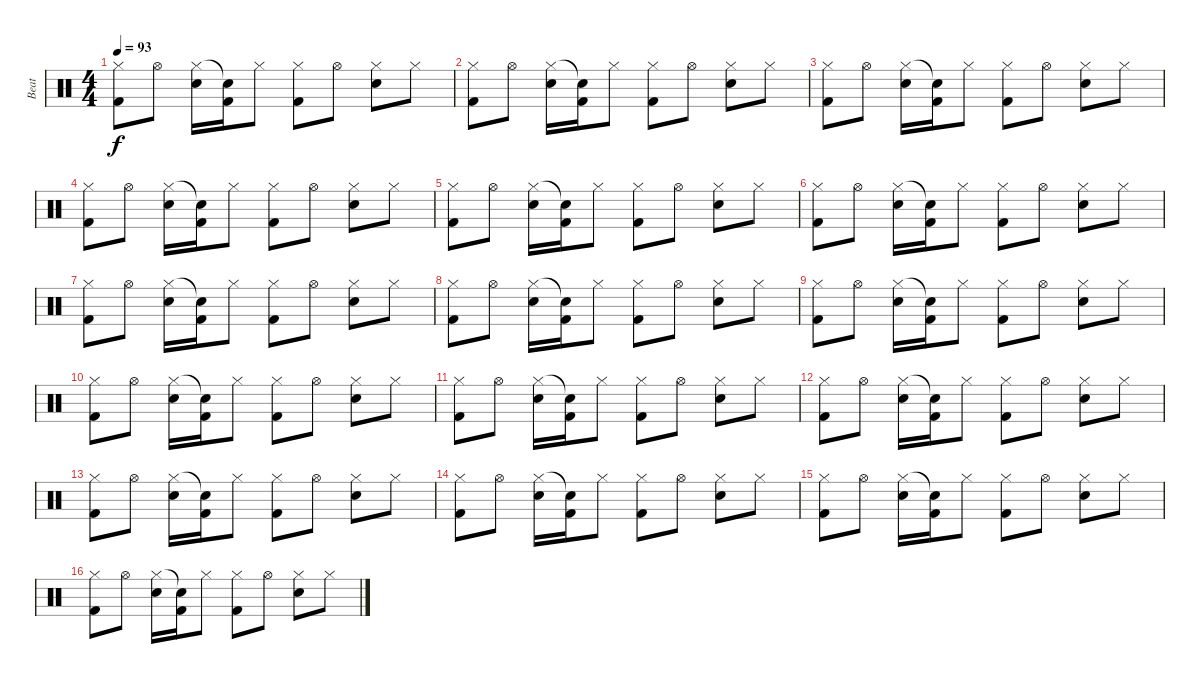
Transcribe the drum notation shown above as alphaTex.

\track ("Beat" "Beat") {instrument percussion}
\staff {score}
\articulation defaults
\ts (4 4)
\tempo 93
\clef neutral
\ks c
("Hi-Hat (closed)" "Kick (hit) 2").8{dy f} "Hi-Hat (open)".8 ("Hi-Hat (closed)" "Snare (hit) 2").16 ("Snare (hit)"{t} "Kick (hit) 2").16 "Hi-Hat (closed)".8 ("Hi-Hat (closed)" "Kick (hit) 2").8 "Hi-Hat (open)".8 ("Hi-Hat (closed)" "Snare (hit) 2").8 "Hi-Hat (closed)".8 |
("Hi-Hat (closed)" "Kick (hit) 2").8 "Hi-Hat (open)".8 ("Hi-Hat (closed)" "Snare (hit) 2").16 ("Snare (hit)"{t} "Kick (hit) 2").16 "Hi-Hat (closed)".8 ("Hi-Hat (closed)" "Kick (hit) 2").8 "Hi-Hat (open)".8 ("Hi-Hat (closed)" "Snare (hit) 2").8 "Hi-Hat (closed)".8 |
("Hi-Hat (closed)" "Kick (hit) 2").8 "Hi-Hat (open)".8 ("Hi-Hat (closed)" "Snare (hit) 2").16 ("Snare (hit)"{t} "Kick (hit) 2").16 "Hi-Hat (closed)".8 ("Hi-Hat (closed)" "Kick (hit) 2").8 "Hi-Hat (open)".8 ("Hi-Hat (closed)" "Snare (hit) 2").8 "Hi-Hat (closed)".8 |
("Hi-Hat (closed)" "Kick (hit) 2").8 "Hi-Hat (open)".8 ("Hi-Hat (closed)" "Snare (hit) 2").16 ("Snare (hit)"{t} "Kick (hit) 2").16 "Hi-Hat (closed)".8 ("Hi-Hat (closed)" "Kick (hit) 2").8 "Hi-Hat (open)".8 ("Hi-Hat (closed)" "Snare (hit) 2").8 "Hi-Hat (closed)".8 |
("Hi-Hat (closed)" "Kick (hit) 2").8 "Hi-Hat (open)".8 ("Hi-Hat (closed)" "Snare (hit) 2").16 ("Snare (hit)"{t} "Kick (hit) 2").16 "Hi-Hat (closed)".8 ("Hi-Hat (closed)" "Kick (hit) 2").8 "Hi-Hat (open)".8 ("Hi-Hat (closed)" "Snare (hit) 2").8 "Hi-Hat (closed)".8 |
("Hi-Hat (closed)" "Kick (hit) 2").8 "Hi-Hat (open)".8 ("Hi-Hat (closed)" "Snare (hit) 2").16 ("Snare (hit)"{t} "Kick (hit) 2").16 "Hi-Hat (closed)".8 ("Hi-Hat (closed)" "Kick (hit) 2").8 "Hi-Hat (open)".8 ("Hi-Hat (closed)" "Snare (hit) 2").8 "Hi-Hat (closed)".8 |
("Hi-Hat (closed)" "Kick (hit) 2").8 "Hi-Hat (open)".8 ("Hi-Hat (closed)" "Snare (hit) 2").16 ("Snare (hit)"{t} "Kick (hit) 2").16 "Hi-Hat (closed)".8 ("Hi-Hat (closed)" "Kick (hit) 2").8 "Hi-Hat (open)".8 ("Hi-Hat (closed)" "Snare (hit) 2").8 "Hi-Hat (closed)".8 |
("Hi-Hat (closed)" "Kick (hit) 2").8 "Hi-Hat (open)".8 ("Hi-Hat (closed)" "Snare (hit) 2").16 ("Snare (hit)"{t} "Kick (hit) 2").16 "Hi-Hat (closed)".8 ("Hi-Hat (closed)" "Kick (hit) 2").8 "Hi-Hat (open)".8 ("Hi-Hat (closed)" "Snare (hit) 2").8 "Hi-Hat (closed)".8 |
("Hi-Hat (closed)" "Kick (hit) 2").8 "Hi-Hat (open)".8 ("Hi-Hat (closed)" "Snare (hit) 2").16 ("Snare (hit)"{t} "Kick (hit) 2").16 "Hi-Hat (closed)".8 ("Hi-Hat (closed)" "Kick (hit) 2").8 "Hi-Hat (open)".8 ("Hi-Hat (closed)" "Snare (hit) 2").8 "Hi-Hat (closed)".8 |
("Hi-Hat (closed)" "Kick (hit) 2").8 "Hi-Hat (open)".8 ("Hi-Hat (closed)" "Snare (hit) 2").16 ("Snare (hit)"{t} "Kick (hit) 2").16 "Hi-Hat (closed)".8 ("Hi-Hat (closed)" "Kick (hit) 2").8 "Hi-Hat (open)".8 ("Hi-Hat (closed)" "Snare (hit) 2").8 "Hi-Hat (closed)".8 |
("Hi-Hat (closed)" "Kick (hit) 2").8 "Hi-Hat (open)".8 ("Hi-Hat (closed)" "Snare (hit) 2").16 ("Snare (hit)"{t} "Kick (hit) 2").16 "Hi-Hat (closed)".8 ("Hi-Hat (closed)" "Kick (hit) 2").8 "Hi-Hat (open)".8 ("Hi-Hat (closed)" "Snare (hit) 2").8 "Hi-Hat (closed)".8 |
("Hi-Hat (closed)" "Kick (hit) 2").8 "Hi-Hat (open)".8 ("Hi-Hat (closed)" "Snare (hit) 2").16 ("Snare (hit)"{t} "Kick (hit) 2").16 "Hi-Hat (closed)".8 ("Hi-Hat (closed)" "Kick (hit) 2").8 "Hi-Hat (open)".8 ("Hi-Hat (closed)" "Snare (hit) 2").8 "Hi-Hat (closed)".8 |
("Hi-Hat (closed)" "Kick (hit) 2").8 "Hi-Hat (open)".8 ("Hi-Hat (closed)" "Snare (hit) 2").16 ("Snare (hit)"{t} "Kick (hit) 2").16 "Hi-Hat (closed)".8 ("Hi-Hat (closed)" "Kick (hit) 2").8 "Hi-Hat (open)".8 ("Hi-Hat (closed)" "Snare (hit) 2").8 "Hi-Hat (closed)".8 |
("Hi-Hat (closed)" "Kick (hit) 2").8 "Hi-Hat (open)".8 ("Hi-Hat (closed)" "Snare (hit) 2").16 ("Snare (hit)"{t} "Kick (hit) 2").16 "Hi-Hat (closed)".8 ("Hi-Hat (closed)" "Kick (hit) 2").8 "Hi-Hat (open)".8 ("Hi-Hat (closed)" "Snare (hit) 2").8 "Hi-Hat (closed)".8 |
("Hi-Hat (closed)" "Kick (hit) 2").8 "Hi-Hat (open)".8 ("Hi-Hat (closed)" "Snare (hit) 2").16 ("Snare (hit)"{t} "Kick (hit) 2").16 "Hi-Hat (closed)".8 ("Hi-Hat (closed)" "Kick (hit) 2").8 "Hi-Hat (open)".8 ("Hi-Hat (closed)" "Snare (hit) 2").8 "Hi-Hat (closed)".8 |
("Hi-Hat (closed)" "Kick (hit) 2").8 "Hi-Hat (open)".8 ("Hi-Hat (closed)" "Snare (hit) 2").16 ("Snare (hit)"{t} "Kick (hit) 2").16 "Hi-Hat (closed)".8 ("Hi-Hat (closed)" "Kick (hit) 2").8 "Hi-Hat (open)".8 ("Hi-Hat (closed)" "Snare (hit) 2").8 "Hi-Hat (closed)".8
